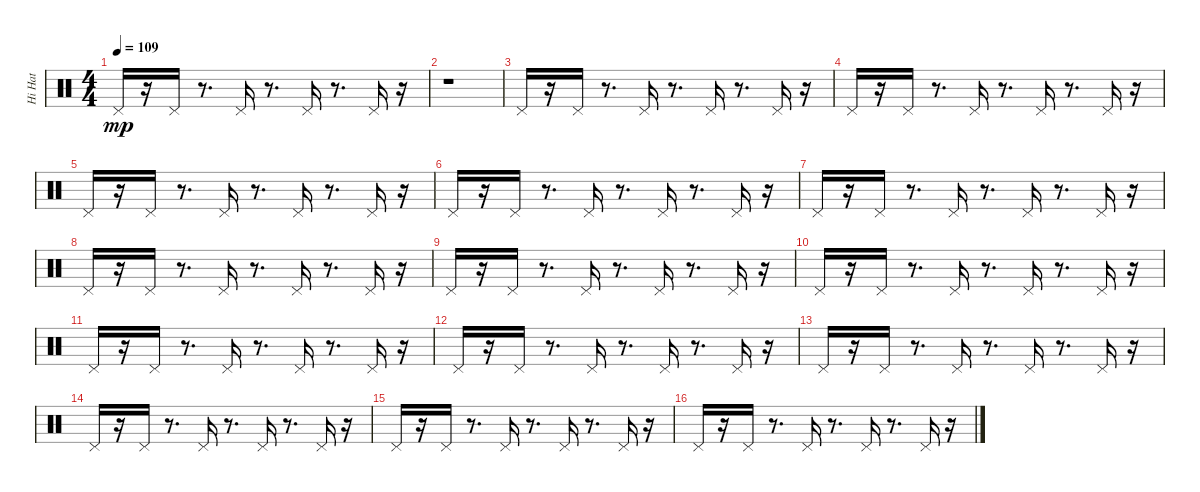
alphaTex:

\track ("Hi Hat" "Hi Hat") {instrument percussion}
\staff {score}
\articulation defaults
\ts (4 4)
\tempo 109
\clef neutral
\ks c "Pedal Hi-Hat (hit)".16{dy mp}
r.16 "Pedal Hi-Hat (hit)".16 r.8{d} "Pedal Hi-Hat (hit)".16 r.8{d} "Pedal Hi-Hat (hit)".16 r.8{d} "Pedal Hi-Hat (hit)".16 r.16 |
r.1 |
"Pedal Hi-Hat (hit)".16 r.16 "Pedal Hi-Hat (hit)".16 r.8{d} "Pedal Hi-Hat (hit)".16 r.8{d} "Pedal Hi-Hat (hit)".16 r.8{d} "Pedal Hi-Hat (hit)".16 r.16 |
"Pedal Hi-Hat (hit)".16 r.16 "Pedal Hi-Hat (hit)".16 r.8{d} "Pedal Hi-Hat (hit)".16 r.8{d} "Pedal Hi-Hat (hit)".16 r.8{d} "Pedal Hi-Hat (hit)".16 r.16 |
"Pedal Hi-Hat (hit)".16 r.16 "Pedal Hi-Hat (hit)".16 r.8{d} "Pedal Hi-Hat (hit)".16 r.8{d} "Pedal Hi-Hat (hit)".16 r.8{d} "Pedal Hi-Hat (hit)".16 r.16 |
"Pedal Hi-Hat (hit)".16 r.16 "Pedal Hi-Hat (hit)".16 r.8{d} "Pedal Hi-Hat (hit)".16 r.8{d} "Pedal Hi-Hat (hit)".16 r.8{d} "Pedal Hi-Hat (hit)".16 r.16 |
"Pedal Hi-Hat (hit)".16 r.16 "Pedal Hi-Hat (hit)".16 r.8{d} "Pedal Hi-Hat (hit)".16 r.8{d} "Pedal Hi-Hat (hit)".16 r.8{d} "Pedal Hi-Hat (hit)".16 r.16 |
"Pedal Hi-Hat (hit)".16 r.16 "Pedal Hi-Hat (hit)".16 r.8{d} "Pedal Hi-Hat (hit)".16 r.8{d} "Pedal Hi-Hat (hit)".16 r.8{d} "Pedal Hi-Hat (hit)".16 r.16 |
"Pedal Hi-Hat (hit)".16 r.16 "Pedal Hi-Hat (hit)".16 r.8{d} "Pedal Hi-Hat (hit)".16 r.8{d} "Pedal Hi-Hat (hit)".16 r.8{d} "Pedal Hi-Hat (hit)".16 r.16 |
"Pedal Hi-Hat (hit)".16 r.16 "Pedal Hi-Hat (hit)".16 r.8{d} "Pedal Hi-Hat (hit)".16 r.8{d} "Pedal Hi-Hat (hit)".16 r.8{d} "Pedal Hi-Hat (hit)".16 r.16 |
"Pedal Hi-Hat (hit)".16 r.16 "Pedal Hi-Hat (hit)".16 r.8{d} "Pedal Hi-Hat (hit)".16 r.8{d} "Pedal Hi-Hat (hit)".16 r.8{d} "Pedal Hi-Hat (hit)".16 r.16 |
"Pedal Hi-Hat (hit)".16 r.16 "Pedal Hi-Hat (hit)".16 r.8{d} "Pedal Hi-Hat (hit)".16 r.8{d} "Pedal Hi-Hat (hit)".16 r.8{d} "Pedal Hi-Hat (hit)".16 r.16 |
"Pedal Hi-Hat (hit)".16 r.16 "Pedal Hi-Hat (hit)".16 r.8{d} "Pedal Hi-Hat (hit)".16 r.8{d} "Pedal Hi-Hat (hit)".16 r.8{d} "Pedal Hi-Hat (hit)".16 r.16 |
"Pedal Hi-Hat (hit)".16 r.16 "Pedal Hi-Hat (hit)".16 r.8{d} "Pedal Hi-Hat (hit)".16 r.8{d} "Pedal Hi-Hat (hit)".16 r.8{d} "Pedal Hi-Hat (hit)".16 r.16 |
"Pedal Hi-Hat (hit)".16 r.16 "Pedal Hi-Hat (hit)".16 r.8{d} "Pedal Hi-Hat (hit)".16 r.8{d} "Pedal Hi-Hat (hit)".16 r.8{d} "Pedal Hi-Hat (hit)".16 r.16 |
"Pedal Hi-Hat (hit)".16 r.16 "Pedal Hi-Hat (hit)".16 r.8{d} "Pedal Hi-Hat (hit)".16 r.8{d} "Pedal Hi-Hat (hit)".16 r.8{d} "Pedal Hi-Hat (hit)".16 r.16
